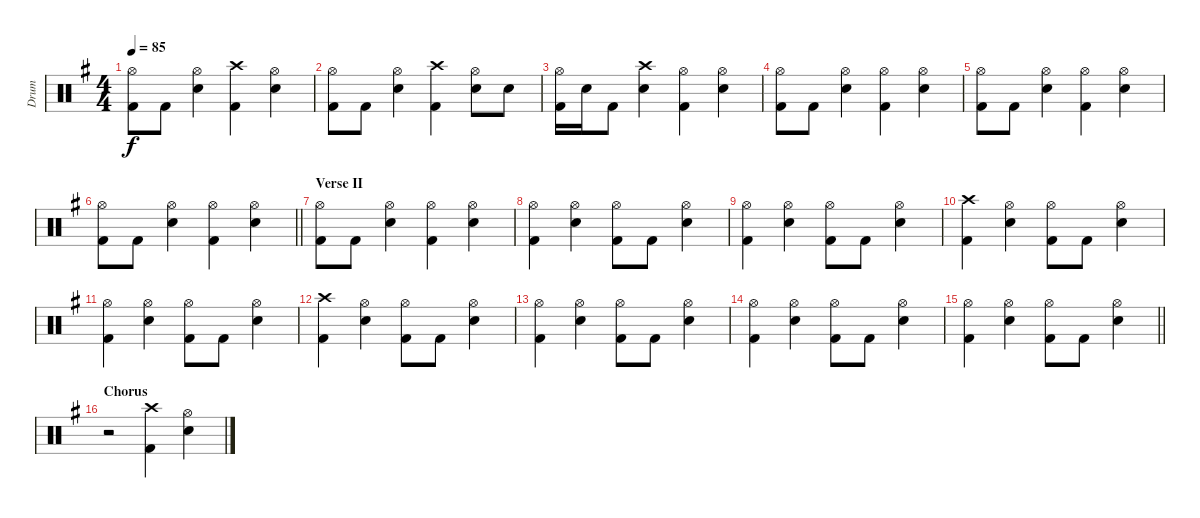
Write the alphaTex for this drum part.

\track ("Drum" "Drum") {instrument percussion}
\staff {score}
\articulation defaults
\ts (4 4)
\tempo 85
\clef neutral
\ks g
("Kick (hit) 2" "Hi-Hat (open)").8{dy f} "Kick (hit) 2".8 ("Electric Snare (hit)" "Hi-Hat (open)").4 ("Kick (hit) 2" "Crash high (hit)").4 ("Electric Snare (hit)" "Hi-Hat (open)").4 |
("Kick (hit) 2" "Hi-Hat (open)").8 "Kick (hit) 2".8 ("Electric Snare (hit)" "Hi-Hat (open)").4 ("Kick (hit) 2" "Crash high (hit)").4 ("Electric Snare (hit)" "Hi-Hat (open)").8 "Electric Snare (hit)".8 |
("Kick (hit) 2" "Hi-Hat (open)").16 "Electric Snare (hit)".16 "Kick (hit) 2".8 ("Electric Snare (hit)" "Crash high (hit)").4 ("Kick (hit) 2" "Hi-Hat (open)").4 ("Electric Snare (hit)" "Hi-Hat (open)").4 |
("Kick (hit) 2" "Hi-Hat (open)").8 "Kick (hit) 2".8 ("Electric Snare (hit)" "Hi-Hat (open)").4 ("Kick (hit) 2" "Hi-Hat (open)").4 ("Electric Snare (hit)" "Hi-Hat (open)").4 |
("Kick (hit) 2" "Hi-Hat (open)").8 "Kick (hit) 2".8 ("Electric Snare (hit)" "Hi-Hat (open)").4 ("Kick (hit) 2" "Hi-Hat (open)").4 ("Electric Snare (hit)" "Hi-Hat (open)").4 |
\barLineRight lightlight
("Kick (hit) 2" "Hi-Hat (open)").8 "Kick (hit) 2".8 ("Electric Snare (hit)" "Hi-Hat (open)").4 ("Kick (hit) 2" "Hi-Hat (open)").4 ("Electric Snare (hit)" "Hi-Hat (open)").4 |
\section ("" "Verse II")
("Kick (hit) 2" "Hi-Hat (open)").8 "Kick (hit) 2".8 ("Electric Snare (hit)" "Hi-Hat (open)").4 ("Kick (hit) 2" "Hi-Hat (open)").4 ("Electric Snare (hit)" "Hi-Hat (open)").4 |
("Kick (hit) 2" "Hi-Hat (open)").4 ("Electric Snare (hit)" "Hi-Hat (open)").4 ("Kick (hit) 2" "Hi-Hat (open)").8 "Kick (hit) 2".8 ("Electric Snare (hit)" "Hi-Hat (open)").4 |
("Kick (hit) 2" "Hi-Hat (open)").4 ("Electric Snare (hit)" "Hi-Hat (open)").4 ("Kick (hit) 2" "Hi-Hat (open)").8 "Kick (hit) 2".8 ("Electric Snare (hit)" "Hi-Hat (open)").4 |
("Crash high (hit)" "Kick (hit) 2").4 ("Electric Snare (hit)" "Hi-Hat (open)").4 ("Kick (hit) 2" "Hi-Hat (open)").8 "Kick (hit) 2".8 ("Electric Snare (hit)" "Hi-Hat (open)").4 |
("Kick (hit) 2" "Hi-Hat (open)").4 ("Electric Snare (hit)" "Hi-Hat (open)").4 ("Kick (hit) 2" "Hi-Hat (open)").8 "Kick (hit) 2".8 ("Electric Snare (hit)" "Hi-Hat (open)").4 |
("Crash high (hit)" "Kick (hit) 2").4 ("Electric Snare (hit)" "Hi-Hat (open)").4 ("Kick (hit) 2" "Hi-Hat (open)").8 "Kick (hit) 2".8 ("Electric Snare (hit)" "Hi-Hat (open)").4 |
("Kick (hit) 2" "Hi-Hat (open)").4 ("Electric Snare (hit)" "Hi-Hat (open)").4 ("Kick (hit) 2" "Hi-Hat (open)").8 "Kick (hit) 2".8 ("Electric Snare (hit)" "Hi-Hat (open)").4 |
("Kick (hit) 2" "Hi-Hat (open)").4 ("Electric Snare (hit)" "Hi-Hat (open)").4 ("Kick (hit) 2" "Hi-Hat (open)").8 "Kick (hit) 2".8 ("Electric Snare (hit)" "Hi-Hat (open)").4 |
\barLineRight lightlight
("Kick (hit) 2" "Hi-Hat (open)").4 ("Electric Snare (hit)" "Hi-Hat (open)").4 ("Kick (hit) 2" "Hi-Hat (open)").8 "Kick (hit) 2".8 ("Electric Snare (hit)" "Hi-Hat (open)").4 |
\section ("" "Chorus")
r.2 ("Crash high (hit)" "Kick (hit) 2").4 ("Electric Snare (hit)" "Hi-Hat (open)").4
